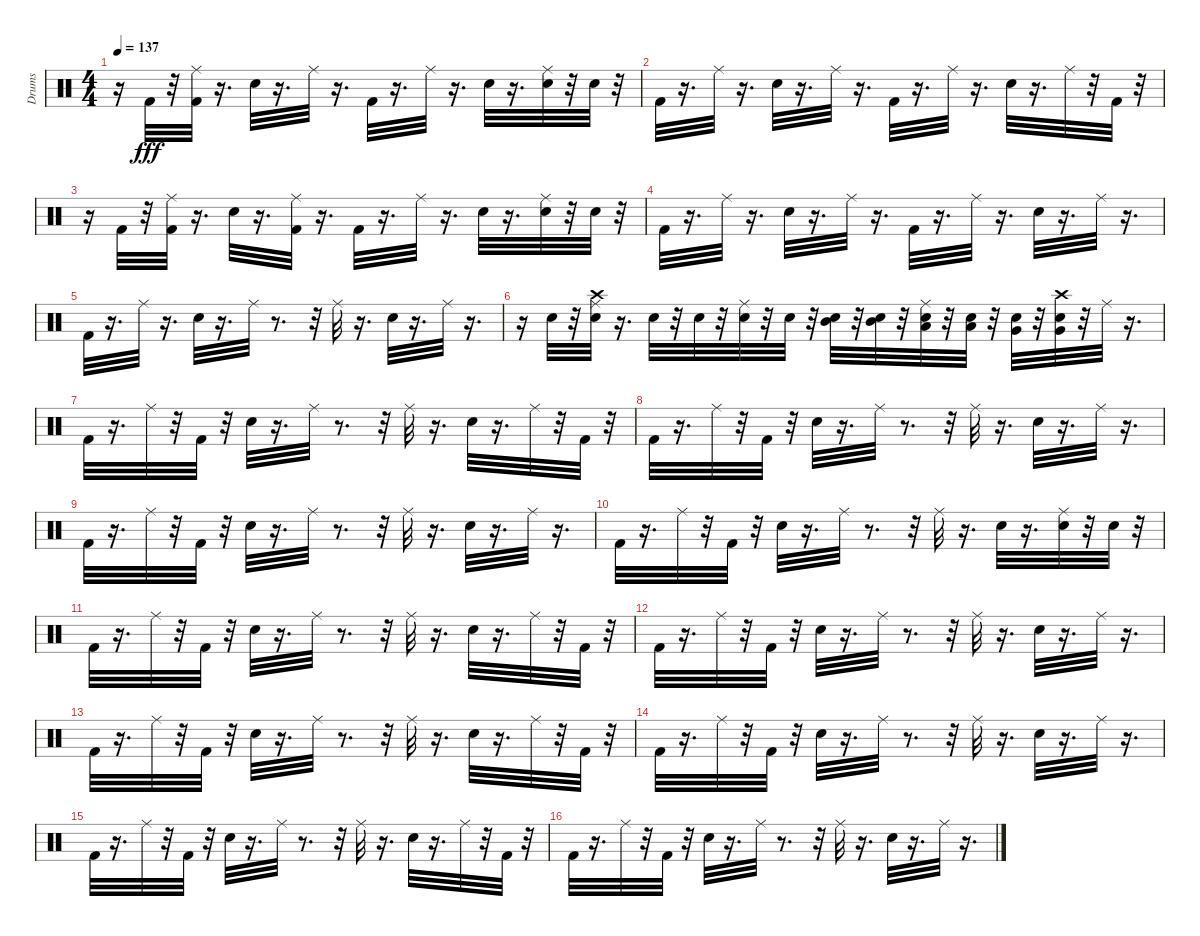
\track ("Drums" "Drums") {instrument percussion}
\staff {score}
\articulation defaults
\ts (4 4)
\tempo 137
\clef neutral
\ks c
r.16{dy fff} "Kick (hit) 2".32 r.32 ("Kick (hit) 2" "Ride (middle)").32 r.16{d} "Snare (hit) 2".32 r.16{d} "Ride (middle)".32 r.16{d} "Kick (hit) 2".32 r.16{d} "Ride (middle)".32 r.16{d} "Snare (hit) 2".32 r.16{d} ("Snare (hit) 2" "Ride (middle)").32 r.32 "Snare (hit) 2".32 r.32 |
"Kick (hit) 2".32 r.16{d} "Ride (middle)".32 r.16{d} "Snare (hit) 2".32 r.16{d} "Ride (middle)".32 r.16{d} "Kick (hit) 2".32 r.16{d} "Ride (middle)".32 r.16{d} "Snare (hit) 2".32 r.16{d} "Ride (middle)".32 r.32 "Kick (hit) 2".32 r.32 |
r.16 "Kick (hit) 2".32 r.32 ("Kick (hit) 2" "Ride (middle)").32 r.16{d} "Snare (hit) 2".32 r.16{d} ("Kick (hit) 2" "Ride (middle)").32 r.16{d} "Kick (hit) 2".32 r.16{d} "Ride (middle)".32 r.16{d} "Snare (hit) 2".32 r.16{d} ("Snare (hit) 2" "Ride (middle)").32 r.32 "Snare (hit) 2".32 r.32 |
"Kick (hit) 2".32 r.16{d} "Ride (middle)".32 r.16{d} "Snare (hit) 2".32 r.16{d} "Ride (middle)".32 r.16{d} "Kick (hit) 2".32 r.16{d} "Ride (middle)".32 r.16{d} "Snare (hit) 2".32 r.16{d} "Ride (middle)".32 r.16{d} |
"Kick (hit) 2".32 r.16{d} "Ride (middle)".32 r.16{d} "Snare (hit) 2".32 r.16{d} "Ride (middle)".32 r.8{d} r.32 "Ride (middle)".32 r.16{d} "Snare (hit) 2".32 r.16{d} "Ride (middle)".32 r.16{d} |
r.16 "Snare (hit) 2".32 r.32 ("Crash high (hit)" "Snare (hit) 2" "Ride (middle)").32 r.16{d} "Snare (hit) 2".32 r.32 "Snare (hit) 2".32 r.32 ("Snare (hit) 2" "Ride (middle)").32 r.32 "Snare (hit) 2".32 r.32 ("Snare (hit) 2" "Mid Tom (hit)").32 r.32 ("Mid Tom (hit)" "Snare (hit) 2").32 r.32 ("Low Tom (hit)" "Snare (hit) 2" "Ride (middle)").32 r.32 ("Low Tom (hit)" "Snare (hit) 2").32 r.32 ("Very Low Tom (hit)" "Snare (hit) 2").32 r.32 ("Very Low Tom (hit)" "Crash high (hit)" "Snare (hit) 2").32 r.32 "Ride (middle)".32 r.16{d} |
"Kick (hit) 2".32 r.16{d} "Ride (middle)".32 r.32 "Kick (hit) 2".32 r.32 "Snare (hit) 2".32 r.16{d} "Ride (middle)".32 r.8{d} r.32 "Ride (middle)".32 r.16{d} "Snare (hit) 2".32 r.16{d} "Ride (middle)".32 r.32 "Kick (hit) 2".32 r.32 |
"Kick (hit) 2".32 r.16{d} "Ride (middle)".32 r.32 "Kick (hit) 2".32 r.32 "Snare (hit) 2".32 r.16{d} "Ride (middle)".32 r.8{d} r.32 "Ride (middle)".32 r.16{d} "Snare (hit) 2".32 r.16{d} "Ride (middle)".32 r.16{d} |
"Kick (hit) 2".32 r.16{d} "Ride (middle)".32 r.32 "Kick (hit) 2".32 r.32 "Snare (hit) 2".32 r.16{d} "Ride (middle)".32 r.8{d} r.32 "Ride (middle)".32 r.16{d} "Snare (hit) 2".32 r.16{d} "Ride (middle)".32 r.16{d} |
"Kick (hit) 2".32 r.16{d} "Ride (middle)".32 r.32 "Kick (hit) 2".32 r.32 "Snare (hit) 2".32 r.16{d} "Ride (middle)".32 r.8{d} r.32 "Ride (middle)".32 r.16{d} "Snare (hit) 2".32 r.16{d} ("Snare (hit) 2" "Ride (middle)").32 r.32 "Snare (hit) 2".32 r.32 |
"Kick (hit) 2".32 r.16{d} "Ride (middle)".32 r.32 "Kick (hit) 2".32 r.32 "Snare (hit) 2".32 r.16{d} "Ride (middle)".32 r.8{d} r.32 "Ride (middle)".32 r.16{d} "Snare (hit) 2".32 r.16{d} "Ride (middle)".32 r.32 "Kick (hit) 2".32 r.32 |
"Kick (hit) 2".32 r.16{d} "Ride (middle)".32 r.32 "Kick (hit) 2".32 r.32 "Snare (hit) 2".32 r.16{d} "Ride (middle)".32 r.8{d} r.32 "Ride (middle)".32 r.16{d} "Snare (hit) 2".32 r.16{d} "Ride (middle)".32 r.16{d} |
"Kick (hit) 2".32 r.16{d} "Ride (middle)".32 r.32 "Kick (hit) 2".32 r.32 "Snare (hit) 2".32 r.16{d} "Ride (middle)".32 r.8{d} r.32 "Ride (middle)".32 r.16{d} "Snare (hit) 2".32 r.16{d} "Ride (middle)".32 r.32 "Kick (hit) 2".32 r.32 |
"Kick (hit) 2".32 r.16{d} "Ride (middle)".32 r.32 "Kick (hit) 2".32 r.32 "Snare (hit) 2".32 r.16{d} "Ride (middle)".32 r.8{d} r.32 "Ride (middle)".32 r.16{d} "Snare (hit) 2".32 r.16{d} "Ride (middle)".32 r.16{d} |
"Kick (hit) 2".32 r.16{d} "Ride (middle)".32 r.32 "Kick (hit) 2".32 r.32 "Snare (hit) 2".32 r.16{d} "Ride (middle)".32 r.8{d} r.32 "Ride (middle)".32 r.16{d} "Snare (hit) 2".32 r.16{d} "Ride (middle)".32 r.32 "Kick (hit) 2".32 r.32 |
"Kick (hit) 2".32 r.16{d} "Ride (middle)".32 r.32 "Kick (hit) 2".32 r.32 "Snare (hit) 2".32 r.16{d} "Ride (middle)".32 r.8{d} r.32 "Ride (middle)".32 r.16{d} "Snare (hit) 2".32 r.16{d} "Ride (middle)".32 r.16{d}
